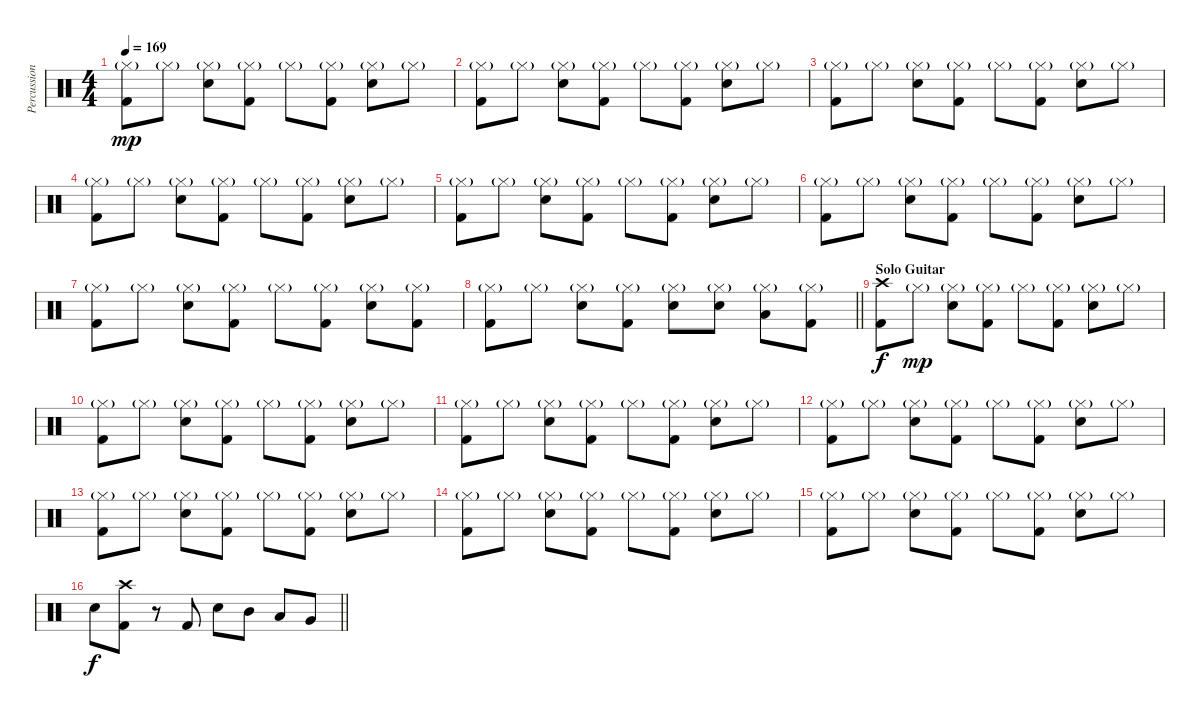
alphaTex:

\track ("Percussion" "Percussion") {instrument percussion}
\staff {score}
\articulation defaults
\ts (4 4)
\tempo 169
\clef neutral
\ks c
("Hi-Hat (closed)"{g} "Kick (hit) 2").8{dy mp} "Hi-Hat (closed)"{g}.8 ("Hi-Hat (closed)"{g} "Snare (hit) 2").8 ("Hi-Hat (closed)"{g} "Kick (hit) 2").8 "Hi-Hat (closed)"{g}.8 ("Hi-Hat (closed)"{g} "Kick (hit) 2").8 ("Hi-Hat (closed)"{g} "Snare (hit) 2").8 "Hi-Hat (closed)"{g}.8 |
("Hi-Hat (closed)"{g} "Kick (hit) 2").8 "Hi-Hat (closed)"{g}.8 ("Hi-Hat (closed)"{g} "Snare (hit) 2").8 ("Hi-Hat (closed)"{g} "Kick (hit) 2").8 "Hi-Hat (closed)"{g}.8 ("Hi-Hat (closed)"{g} "Kick (hit) 2").8 ("Hi-Hat (closed)"{g} "Snare (hit) 2").8 "Hi-Hat (closed)"{g}.8 |
("Hi-Hat (closed)"{g} "Kick (hit) 2").8 "Hi-Hat (closed)"{g}.8 ("Hi-Hat (closed)"{g} "Snare (hit) 2").8 ("Hi-Hat (closed)"{g} "Kick (hit) 2").8 "Hi-Hat (closed)"{g}.8 ("Hi-Hat (closed)"{g} "Kick (hit) 2").8 ("Hi-Hat (closed)"{g} "Snare (hit) 2").8 "Hi-Hat (closed)"{g}.8 |
("Hi-Hat (closed)"{g} "Kick (hit) 2").8 "Hi-Hat (closed)"{g}.8 ("Hi-Hat (closed)"{g} "Snare (hit) 2").8 ("Hi-Hat (closed)"{g} "Kick (hit) 2").8 "Hi-Hat (closed)"{g}.8 ("Hi-Hat (closed)"{g} "Kick (hit) 2").8 ("Hi-Hat (closed)"{g} "Snare (hit) 2").8 "Hi-Hat (closed)"{g}.8 |
("Hi-Hat (closed)"{g} "Kick (hit) 2").8 "Hi-Hat (closed)"{g}.8 ("Hi-Hat (closed)"{g} "Snare (hit) 2").8 ("Hi-Hat (closed)"{g} "Kick (hit) 2").8 "Hi-Hat (closed)"{g}.8 ("Hi-Hat (closed)"{g} "Kick (hit) 2").8 ("Hi-Hat (closed)"{g} "Snare (hit) 2").8 "Hi-Hat (closed)"{g}.8 |
("Hi-Hat (closed)"{g} "Kick (hit) 2").8 "Hi-Hat (closed)"{g}.8 ("Hi-Hat (closed)"{g} "Snare (hit) 2").8 ("Hi-Hat (closed)"{g} "Kick (hit) 2").8 "Hi-Hat (closed)"{g}.8 ("Hi-Hat (closed)"{g} "Kick (hit) 2").8 ("Hi-Hat (closed)"{g} "Snare (hit) 2").8 "Hi-Hat (closed)"{g}.8 |
("Hi-Hat (closed)"{g} "Kick (hit) 2").8 "Hi-Hat (closed)"{g}.8 ("Hi-Hat (closed)"{g} "Snare (hit) 2").8 ("Hi-Hat (closed)"{g} "Kick (hit) 2").8 "Hi-Hat (closed)"{g}.8 ("Hi-Hat (closed)"{g} "Kick (hit) 2").8 ("Hi-Hat (closed)"{g} "Snare (hit) 2").8 ("Hi-Hat (closed)"{g} "Kick (hit) 2").8 |
\barLineRight lightlight
("Hi-Hat (closed)"{g} "Kick (hit) 2").8 "Hi-Hat (closed)"{g}.8 ("Hi-Hat (closed)"{g} "Snare (hit) 2").8 ("Hi-Hat (closed)"{g} "Kick (hit) 2").8 ("Hi-Hat (closed)"{g} "Snare (hit) 2").8 ("Hi-Hat (closed)"{g} "Snare (hit) 2").8 ("Hi-Hat (closed)"{g} "Low Tom (hit)").8 ("Hi-Hat (closed)"{g} "Kick (hit) 2").8 |
\section ("" "Solo Guitar")
("Crash high (hit)" "Kick (hit) 2").8{dy f} "Hi-Hat (closed)"{g}.8{dy mp} ("Hi-Hat (closed)"{g} "Snare (hit) 2").8 ("Hi-Hat (closed)"{g} "Kick (hit) 2").8 "Hi-Hat (closed)"{g}.8 ("Hi-Hat (closed)"{g} "Kick (hit) 2").8 ("Hi-Hat (closed)"{g} "Snare (hit) 2").8 "Hi-Hat (closed)"{g}.8 |
("Hi-Hat (closed)"{g} "Kick (hit) 2").8 "Hi-Hat (closed)"{g}.8 ("Hi-Hat (closed)"{g} "Snare (hit) 2").8 ("Hi-Hat (closed)"{g} "Kick (hit) 2").8 "Hi-Hat (closed)"{g}.8 ("Hi-Hat (closed)"{g} "Kick (hit) 2").8 ("Hi-Hat (closed)"{g} "Snare (hit) 2").8 "Hi-Hat (closed)"{g}.8 |
("Hi-Hat (closed)"{g} "Kick (hit) 2").8 "Hi-Hat (closed)"{g}.8 ("Hi-Hat (closed)"{g} "Snare (hit) 2").8 ("Hi-Hat (closed)"{g} "Kick (hit) 2").8 "Hi-Hat (closed)"{g}.8 ("Hi-Hat (closed)"{g} "Kick (hit) 2").8 ("Hi-Hat (closed)"{g} "Snare (hit) 2").8 "Hi-Hat (closed)"{g}.8 |
("Hi-Hat (closed)"{g} "Kick (hit) 2").8 "Hi-Hat (closed)"{g}.8 ("Hi-Hat (closed)"{g} "Snare (hit) 2").8 ("Hi-Hat (closed)"{g} "Kick (hit) 2").8 "Hi-Hat (closed)"{g}.8 ("Hi-Hat (closed)"{g} "Kick (hit) 2").8 ("Hi-Hat (closed)"{g} "Snare (hit) 2").8 "Hi-Hat (closed)"{g}.8 |
("Hi-Hat (closed)"{g} "Kick (hit) 2").8 "Hi-Hat (closed)"{g}.8 ("Hi-Hat (closed)"{g} "Snare (hit) 2").8 ("Hi-Hat (closed)"{g} "Kick (hit) 2").8 "Hi-Hat (closed)"{g}.8 ("Hi-Hat (closed)"{g} "Kick (hit) 2").8 ("Hi-Hat (closed)"{g} "Snare (hit) 2").8 "Hi-Hat (closed)"{g}.8 |
("Hi-Hat (closed)"{g} "Kick (hit) 2").8 "Hi-Hat (closed)"{g}.8 ("Hi-Hat (closed)"{g} "Snare (hit) 2").8 ("Hi-Hat (closed)"{g} "Kick (hit) 2").8 "Hi-Hat (closed)"{g}.8 ("Hi-Hat (closed)"{g} "Kick (hit) 2").8 ("Hi-Hat (closed)"{g} "Snare (hit) 2").8 "Hi-Hat (closed)"{g}.8 |
("Hi-Hat (closed)"{g} "Kick (hit) 2").8 "Hi-Hat (closed)"{g}.8 ("Hi-Hat (closed)"{g} "Snare (hit) 2").8 ("Hi-Hat (closed)"{g} "Kick (hit) 2").8 "Hi-Hat (closed)"{g}.8 ("Hi-Hat (closed)"{g} "Kick (hit) 2").8 ("Hi-Hat (closed)"{g} "Snare (hit) 2").8 "Hi-Hat (closed)"{g}.8 |
\barLineRight lightlight "Snare (hit) 2".8{dy f}
("Crash high (hit)" "Kick (hit) 2").8 r.8 "Kick (hit) 2".8 "Snare (hit) 2".8 "Mid Tom (hit)".8 "Low Tom (hit)".8 "Very Low Tom (hit)".8
